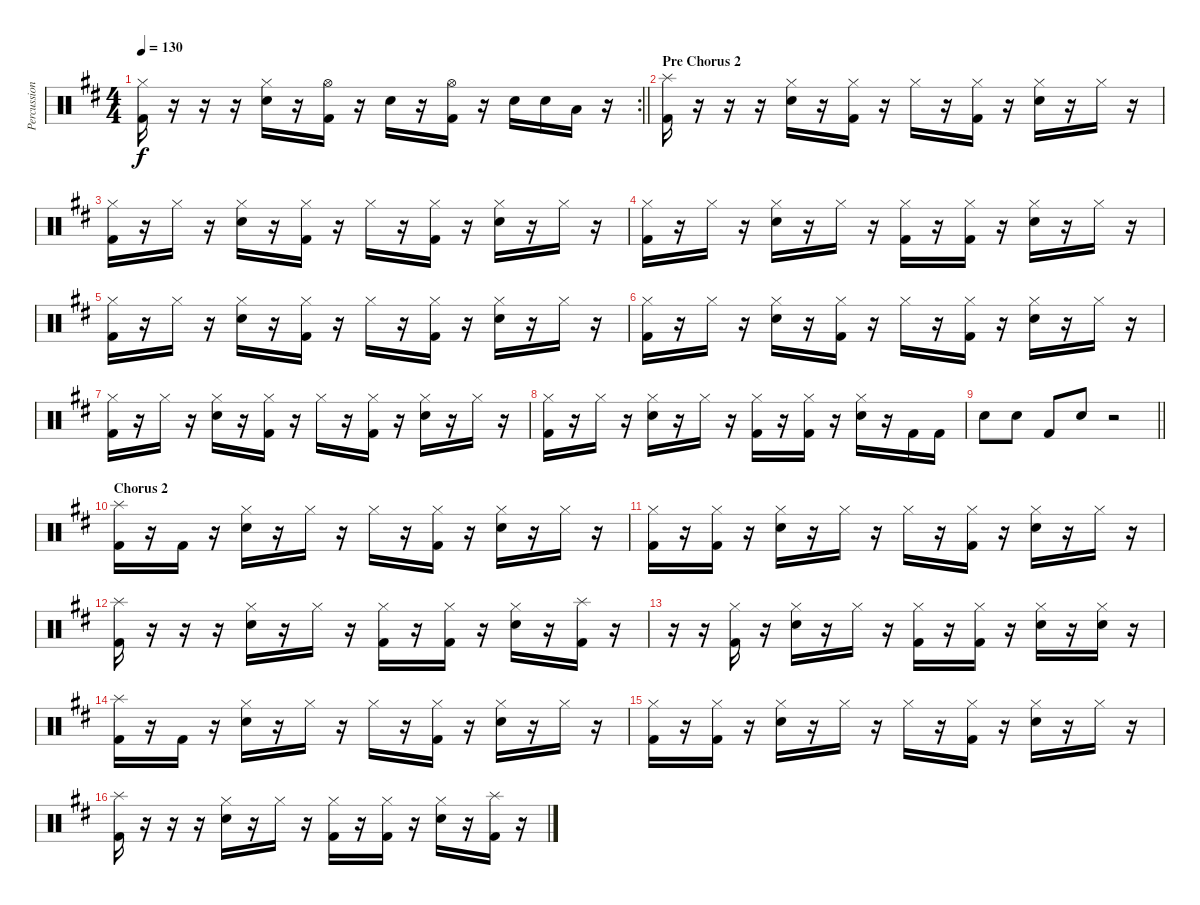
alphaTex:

\track ("Percussioni" "Percussion") {instrument percussion}
\staff {score}
\articulation defaults
\rc 2
\ts (4 4)
\tempo 130
\clef neutral
\barLineRight lightlight
\ks d
("Kick (hit) 2" "Hi-Hat (closed)").16{dy f} r.16 r.16 r.16 ("Snare (hit) 2" "Hi-Hat (closed)").16 r.16 ("Kick (hit) 2" "Hi-Hat (open)").16 r.16 "Snare (hit) 2".16 r.16 ("Kick (hit) 2" "Hi-Hat (open)").16 r.16 "Snare (hit) 2".16 "Snare (hit) 2".16 "Low Tom (hit)".16 r.16 |
\section ("" "Pre Chorus 2")
("Kick (hit) 2" "Splash (hit)").16 r.16 r.16 r.16 ("Snare (hit) 2" "Hi-Hat (closed)").16 r.16 ("Kick (hit) 2" "Hi-Hat (closed)").16 r.16 "Hi-Hat (closed)".16 r.16 ("Kick (hit) 2" "Hi-Hat (closed)").16 r.16 ("Snare (hit) 2" "Hi-Hat (closed)").16 r.16 "Hi-Hat (closed)".16 r.16 |
("Kick (hit) 2" "Hi-Hat (closed)").16 r.16 "Hi-Hat (closed)".16 r.16 ("Snare (hit) 2" "Hi-Hat (closed)").16 r.16 ("Kick (hit) 2" "Hi-Hat (closed)").16 r.16 "Hi-Hat (closed)".16 r.16 ("Kick (hit) 2" "Hi-Hat (closed)").16 r.16 ("Snare (hit) 2" "Hi-Hat (closed)").16 r.16 "Hi-Hat (closed)".16 r.16 |
("Kick (hit) 2" "Hi-Hat (closed)").16 r.16 "Hi-Hat (closed)".16 r.16 ("Snare (hit) 2" "Hi-Hat (closed)").16 r.16 "Hi-Hat (closed)".16 r.16 ("Kick (hit) 2" "Hi-Hat (closed)").16 r.16 ("Kick (hit) 2" "Hi-Hat (closed)").16 r.16 ("Snare (hit) 2" "Hi-Hat (closed)").16 r.16 "Hi-Hat (closed)".16 r.16 |
("Kick (hit) 2" "Hi-Hat (closed)").16 r.16 "Hi-Hat (closed)".16 r.16 ("Snare (hit) 2" "Hi-Hat (closed)").16 r.16 ("Kick (hit) 2" "Hi-Hat (closed)").16 r.16 "Hi-Hat (closed)".16 r.16 ("Kick (hit) 2" "Hi-Hat (closed)").16 r.16 ("Snare (hit) 2" "Hi-Hat (closed)").16 r.16 "Hi-Hat (closed)".16 r.16 |
("Kick (hit) 2" "Hi-Hat (closed)").16 r.16 "Hi-Hat (closed)".16 r.16 ("Snare (hit) 2" "Hi-Hat (closed)").16 r.16 ("Kick (hit) 2" "Hi-Hat (closed)").16 r.16 "Hi-Hat (closed)".16 r.16 ("Kick (hit) 2" "Hi-Hat (closed)").16 r.16 ("Snare (hit) 2" "Hi-Hat (closed)").16 r.16 "Hi-Hat (closed)".16 r.16 |
("Kick (hit) 2" "Hi-Hat (closed)").16 r.16 "Hi-Hat (closed)".16 r.16 ("Snare (hit) 2" "Hi-Hat (closed)").16 r.16 ("Kick (hit) 2" "Hi-Hat (closed)").16 r.16 "Hi-Hat (closed)".16 r.16 ("Kick (hit) 2" "Hi-Hat (closed)").16 r.16 ("Snare (hit) 2" "Hi-Hat (closed)").16 r.16 "Hi-Hat (closed)".16 r.16 |
("Kick (hit) 2" "Hi-Hat (closed)").16 r.16 "Hi-Hat (closed)".16 r.16 ("Snare (hit) 2" "Hi-Hat (closed)").16 r.16 "Hi-Hat (closed)".16 r.16 ("Kick (hit) 2" "Hi-Hat (closed)").16 r.16 ("Kick (hit) 2" "Hi-Hat (closed)").16 r.16 ("Snare (hit) 2" "Hi-Hat (closed)").16 r.16 "Kick (hit) 2".16 "Kick (hit) 2".16 |
\barLineRight lightlight "Snare (hit) 2".8 "Snare (hit) 2".8 "Kick (hit) 2".8 "Snare (hit) 2".8
r.2 |
\section ("" "Chorus 2")
("Kick (hit) 2" "Splash (hit)").16 r.16 "Kick (hit) 2".16 r.16 ("Snare (hit) 2" "Hi-Hat (closed)").16 r.16 "Hi-Hat (closed)".16 r.16 "Hi-Hat (closed)".16 r.16 ("Kick (hit) 2" "Hi-Hat (closed)").16 r.16 ("Snare (hit) 2" "Hi-Hat (closed)").16 r.16 "Hi-Hat (closed)".16 r.16 |
("Kick (hit) 2" "Hi-Hat (closed)").16 r.16 ("Kick (hit) 2" "Hi-Hat (closed)").16 r.16 ("Snare (hit) 2" "Hi-Hat (closed)").16 r.16 "Hi-Hat (closed)".16 r.16 "Hi-Hat (closed)".16 r.16 ("Kick (hit) 2" "Hi-Hat (closed)").16 r.16 ("Snare (hit) 2" "Hi-Hat (closed)").16 r.16 "Hi-Hat (closed)".16 r.16 |
("Kick (hit) 2" "Splash (hit)").16 r.16 r.16 r.16 ("Snare (hit) 2" "Hi-Hat (closed)").16 r.16 "Hi-Hat (closed)".16 r.16 ("Kick (hit) 2" "Hi-Hat (closed)").16 r.16 ("Kick (hit) 2" "Hi-Hat (closed)").16 r.16 ("Snare (hit) 2" "Hi-Hat (closed)").16 r.16 ("Kick (hit) 2" "Splash (hit)").16 r.16 |
r.16 r.16 ("Kick (hit) 2" "Hi-Hat (closed)").16 r.16 ("Snare (hit) 2" "Hi-Hat (closed)").16 r.16 "Hi-Hat (closed)".16 r.16 ("Kick (hit) 2" "Hi-Hat (closed)").16 r.16 ("Kick (hit) 2" "Hi-Hat (closed)").16 r.16 ("Snare (hit) 2" "Hi-Hat (closed)").16 r.16 ("Snare (hit) 2" "Hi-Hat (closed)").16 r.16 |
("Kick (hit) 2" "Splash (hit)").16 r.16 "Kick (hit) 2".16 r.16 ("Snare (hit) 2" "Hi-Hat (closed)").16 r.16 "Hi-Hat (closed)".16 r.16 "Hi-Hat (closed)".16 r.16 ("Kick (hit) 2" "Hi-Hat (closed)").16 r.16 ("Snare (hit) 2" "Hi-Hat (closed)").16 r.16 "Hi-Hat (closed)".16 r.16 |
("Kick (hit) 2" "Hi-Hat (closed)").16 r.16 ("Kick (hit) 2" "Hi-Hat (closed)").16 r.16 ("Snare (hit) 2" "Hi-Hat (closed)").16 r.16 "Hi-Hat (closed)".16 r.16 "Hi-Hat (closed)".16 r.16 ("Kick (hit) 2" "Hi-Hat (closed)").16 r.16 ("Snare (hit) 2" "Hi-Hat (closed)").16 r.16 "Hi-Hat (closed)".16 r.16 |
("Kick (hit) 2" "Splash (hit)").16 r.16 r.16 r.16 ("Snare (hit) 2" "Hi-Hat (closed)").16 r.16 "Hi-Hat (closed)".16 r.16 ("Kick (hit) 2" "Hi-Hat (closed)").16 r.16 ("Kick (hit) 2" "Hi-Hat (closed)").16 r.16 ("Snare (hit) 2" "Hi-Hat (closed)").16 r.16 ("Kick (hit) 2" "Splash (hit)").16 r.16
